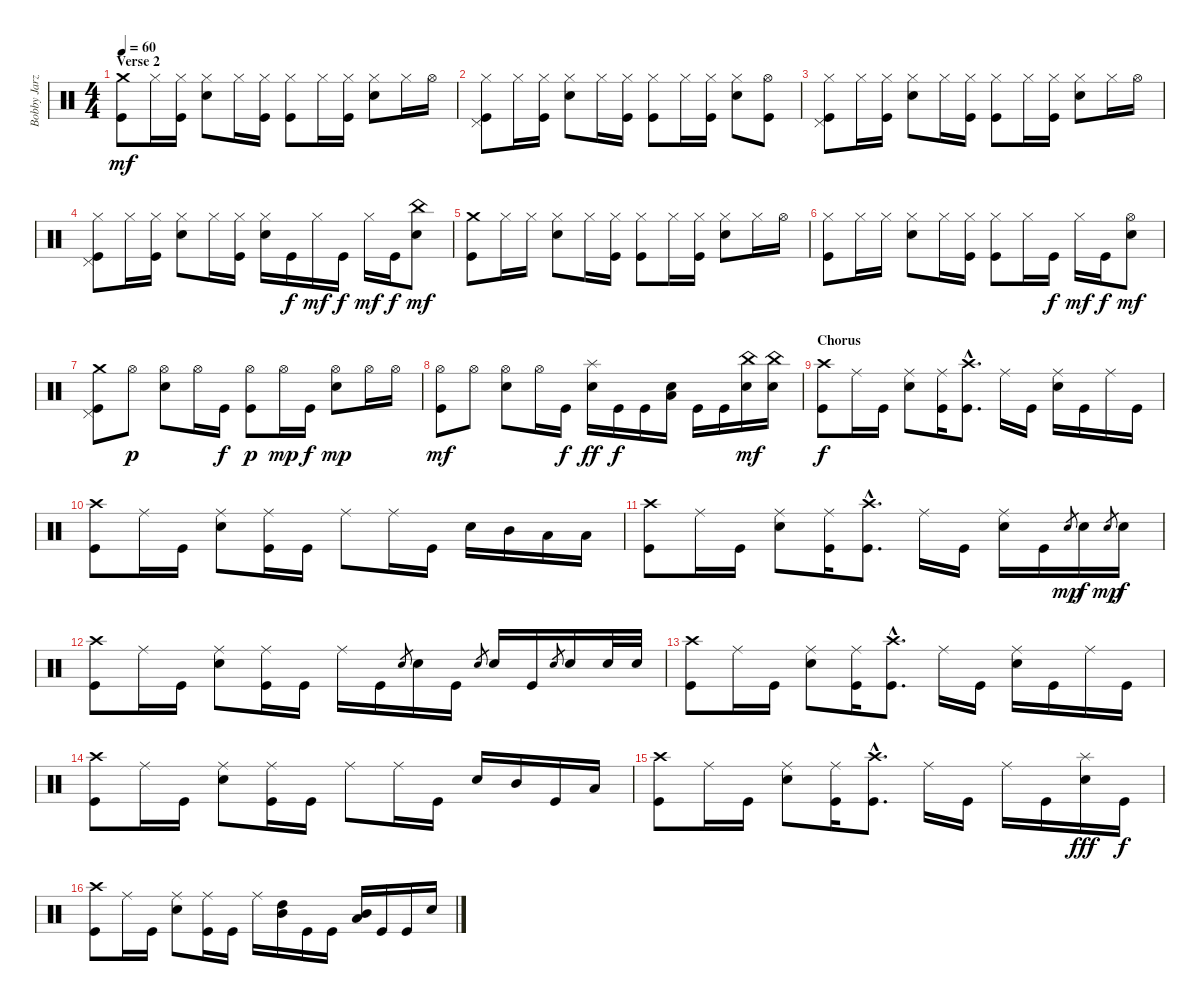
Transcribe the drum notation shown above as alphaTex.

\track ("Bobby Jarzombek" "Bobby Jarz") {instrument percussion}
\staff {score}
\articulation defaults
\ts (4 4)
\section ("" "Verse 2")
\tempo 60
\clef neutral
\ks c
("Crash medium (hit)" "Kick (hit)").8{dy mf} "Hi-Hat (closed)".16 ("Hi-Hat (closed)" "Kick (hit)").16 ("Hi-Hat (closed)" "Electric Snare (hit)").8 "Hi-Hat (closed)".16 ("Hi-Hat (closed)" "Kick (hit)").16 ("Hi-Hat (closed)" "Kick (hit)").8 "Hi-Hat (closed)".16 ("Hi-Hat (closed)" "Kick (hit)").16 ("Hi-Hat (closed)" "Electric Snare (hit)").8 "Hi-Hat (closed)".16 "Hi-Hat (open)".16 |
("Hi-Hat (closed)" "Pedal Hi-Hat (hit)" "Kick (hit)").8 "Hi-Hat (closed)".16 ("Hi-Hat (closed)" "Kick (hit)").16 ("Hi-Hat (closed)" "Electric Snare (hit)").8 "Hi-Hat (closed)".16 ("Hi-Hat (closed)" "Kick (hit)").16 ("Hi-Hat (closed)" "Kick (hit)").8 "Hi-Hat (closed)".16 ("Hi-Hat (closed)" "Kick (hit)").16 ("Hi-Hat (closed)" "Electric Snare (hit)").8 ("Hi-Hat (open)" "Kick (hit)").8 |
("Hi-Hat (closed)" "Pedal Hi-Hat (hit)" "Kick (hit)").8 "Hi-Hat (closed)".16 ("Hi-Hat (closed)" "Kick (hit)").16 ("Hi-Hat (closed)" "Electric Snare (hit)").8 "Hi-Hat (closed)".16 ("Hi-Hat (closed)" "Kick (hit)").16 ("Hi-Hat (closed)" "Kick (hit)").8 "Hi-Hat (closed)".16 ("Hi-Hat (closed)" "Kick (hit)").16 ("Hi-Hat (closed)" "Electric Snare (hit)").8 "Hi-Hat (closed)".16 "Hi-Hat (open)".16 |
("Hi-Hat (closed)" "Pedal Hi-Hat (hit)" "Kick (hit)").8 "Hi-Hat (closed)".16 ("Hi-Hat (closed)" "Kick (hit)").16 ("Hi-Hat (closed)" "Electric Snare (hit)").8 "Hi-Hat (closed)".16 ("Hi-Hat (closed)" "Kick (hit)").16 ("Hi-Hat (closed)" "Electric Snare (hit)").16 "Kick (hit)".16{dy f} "Hi-Hat (closed)".16{dy mf} "Kick (hit)".16{dy f} "Hi-Hat (closed)".16{dy mf} "Kick (hit)".16{dy f} ("China (hit)" "Electric Snare (hit)").8{dy mf} |
("Crash medium (hit)" "Kick (hit)").8 "Hi-Hat (closed)".16 "Hi-Hat (closed)".16 ("Hi-Hat (closed)" "Electric Snare (hit)").8 "Hi-Hat (closed)".16 ("Hi-Hat (closed)" "Kick (hit)").16 ("Hi-Hat (closed)" "Kick (hit)").8 "Hi-Hat (closed)".16 ("Hi-Hat (closed)" "Kick (hit)").16 ("Hi-Hat (closed)" "Electric Snare (hit)").8 "Hi-Hat (closed)".16 "Hi-Hat (open)".16 |
("Hi-Hat (closed)" "Kick (hit)").8 "Hi-Hat (closed)".16 "Hi-Hat (closed)".16 ("Hi-Hat (closed)" "Electric Snare (hit)").8 "Hi-Hat (closed)".16 ("Hi-Hat (closed)" "Kick (hit)").16 ("Hi-Hat (closed)" "Kick (hit)").8 "Hi-Hat (closed)".16 "Kick (hit)".16{dy f} "Hi-Hat (closed)".16{dy mf} "Kick (hit)".16{dy f} ("Hi-Hat (open)" "Electric Snare (hit)").8{dy mf} |
("Crash medium (hit)" "Pedal Hi-Hat (hit)" "Kick (hit)").8 "Hi-Hat (open)".8{dy p} ("Hi-Hat (open)" "Electric Snare (hit)").8 "Hi-Hat (open)".16 "Kick (hit)".16{dy f} ("Hi-Hat (open)" "Kick (hit)").8{dy p} "Hi-Hat (open)".16{dy mp} "Kick (hit)".16{dy f} ("Hi-Hat (open)" "Electric Snare (hit)").8{dy mp} "Hi-Hat (open)".16 "Hi-Hat (open)".16 |
("Hi-Hat (open)" "Kick (hit)").8{dy mf} "Hi-Hat (open)".8 ("Hi-Hat (open)" "Electric Snare (hit)").8 "Hi-Hat (open)".16 "Kick (hit)".16{dy f} ("Splash (hit)" "Electric Snare (hit)").16{dy ff} "Kick (hit)".16{dy f} "Kick (hit)".16 ("Low Tom (hit)" "Electric Snare (hit)").16 "Kick (hit)".16 "Kick (hit)".16 ("China (hit)" "Electric Snare (hit)").16{dy mf} ("China (hit)" "Electric Snare (hit)").16 |
\section ("" "Chorus")
("Crash high (hit)" "Kick (hit)").8{dy f} "Ride (middle)".16 "Kick (hit)".16 ("Ride (middle)" "Electric Snare (hit)").8 ("Ride (middle)" "Kick (hit)").16 ("Crash high (hit)"{hac} "Kick (hit)"{hac}).8{d} "Ride (middle)".16 "Kick (hit)".16 ("Ride (middle)" "Electric Snare (hit)").16 "Kick (hit)".16 "Ride (middle)".16 "Kick (hit)".16 |
("Crash high (hit)" "Kick (hit)").8 "Ride (middle)".16 "Kick (hit)".16 ("Ride (middle)" "Electric Snare (hit)").8 ("Ride (middle)" "Kick (hit)").16 "Kick (hit)".16 "Ride (middle)".8 "Ride (middle)".16 "Kick (hit)".16 "Electric Snare (hit)".16 "Mid Tom (hit)".16 "Low Tom (hit)".16 "Low Tom (hit)".16 |
("Crash high (hit)" "Kick (hit)").8 "Ride (middle)".16 "Kick (hit)".16 ("Ride (middle)" "Electric Snare (hit)").8 ("Ride (middle)" "Kick (hit)").16 ("Crash high (hit)"{hac} "Kick (hit)"{hac}).8{d} "Ride (middle)".16 "Kick (hit)".16 ("Ride (middle)" "Electric Snare (hit)").16 "Kick (hit)".16 "Electric Snare (hit)".8{gr dy mp} "Electric Snare (hit)".16{dy f} "Electric Snare (hit)".8{gr dy mp} "Electric Snare (hit)".16{dy f} |
("Crash high (hit)" "Kick (hit)").8 "Ride (middle)".16 "Kick (hit)".16 ("Ride (middle)" "Electric Snare (hit)").8 ("Ride (middle)" "Kick (hit)").16 "Kick (hit)".16 "Ride (middle)".16 "Kick (hit)".16 "Electric Snare (hit)".8{gr} "Electric Snare (hit)".16 "Kick (hit)".16 "Electric Snare (hit)".8{gr} "Electric Snare (hit)".16 "Kick (hit)".16 "Electric Snare (hit)".8{gr} "Electric Snare (hit)".16 "Electric Snare (hit)".32 "Electric Snare (hit)".32 |
("Crash high (hit)" "Kick (hit)").8 "Ride (middle)".16 "Kick (hit)".16 ("Ride (middle)" "Electric Snare (hit)").8 ("Ride (middle)" "Kick (hit)").16 ("Crash high (hit)"{hac} "Kick (hit)"{hac}).8{d} "Ride (middle)".16 "Kick (hit)".16 ("Ride (middle)" "Electric Snare (hit)").16 "Kick (hit)".16 "Ride (middle)".16 "Kick (hit)".16 |
("Crash high (hit)" "Kick (hit)").8 "Ride (middle)".16 "Kick (hit)".16 ("Ride (middle)" "Electric Snare (hit)").8 ("Ride (middle)" "Kick (hit)").16 "Kick (hit)".16 "Ride (middle)".8 "Ride (middle)".16 "Kick (hit)".16 "Electric Snare (hit)".16 "Mid Tom (hit)".16 "Kick (hit)".16 "Low Tom (hit)".16 |
("Crash high (hit)" "Kick (hit)").8 "Ride (middle)".16 "Kick (hit)".16 ("Ride (middle)" "Electric Snare (hit)").8 ("Ride (middle)" "Kick (hit)").16 ("Crash high (hit)"{hac} "Kick (hit)"{hac}).8{d} "Ride (middle)".16 "Kick (hit)".16 "Ride (middle)".16 "Kick (hit)".16 ("Splash (hit)" "Electric Snare (hit)").16{dy fff} "Kick (hit)".16{dy f} |
("Crash high (hit)" "Kick (hit)").8 "Ride (middle)".16 "Kick (hit)".16 ("Ride (middle)" "Electric Snare (hit)").8 ("Ride (middle)" "Kick (hit)").16 "Kick (hit)".16 "Ride (middle)".16 ("High Tom (hit)" "Mid Tom (hit)").16 "Kick (hit)".16 "Kick (hit)".16 ("Mid Tom (hit)" "Low Tom (hit)").16 "Kick (hit)".16 "Kick (hit)".16 "Electric Snare (hit)".16
